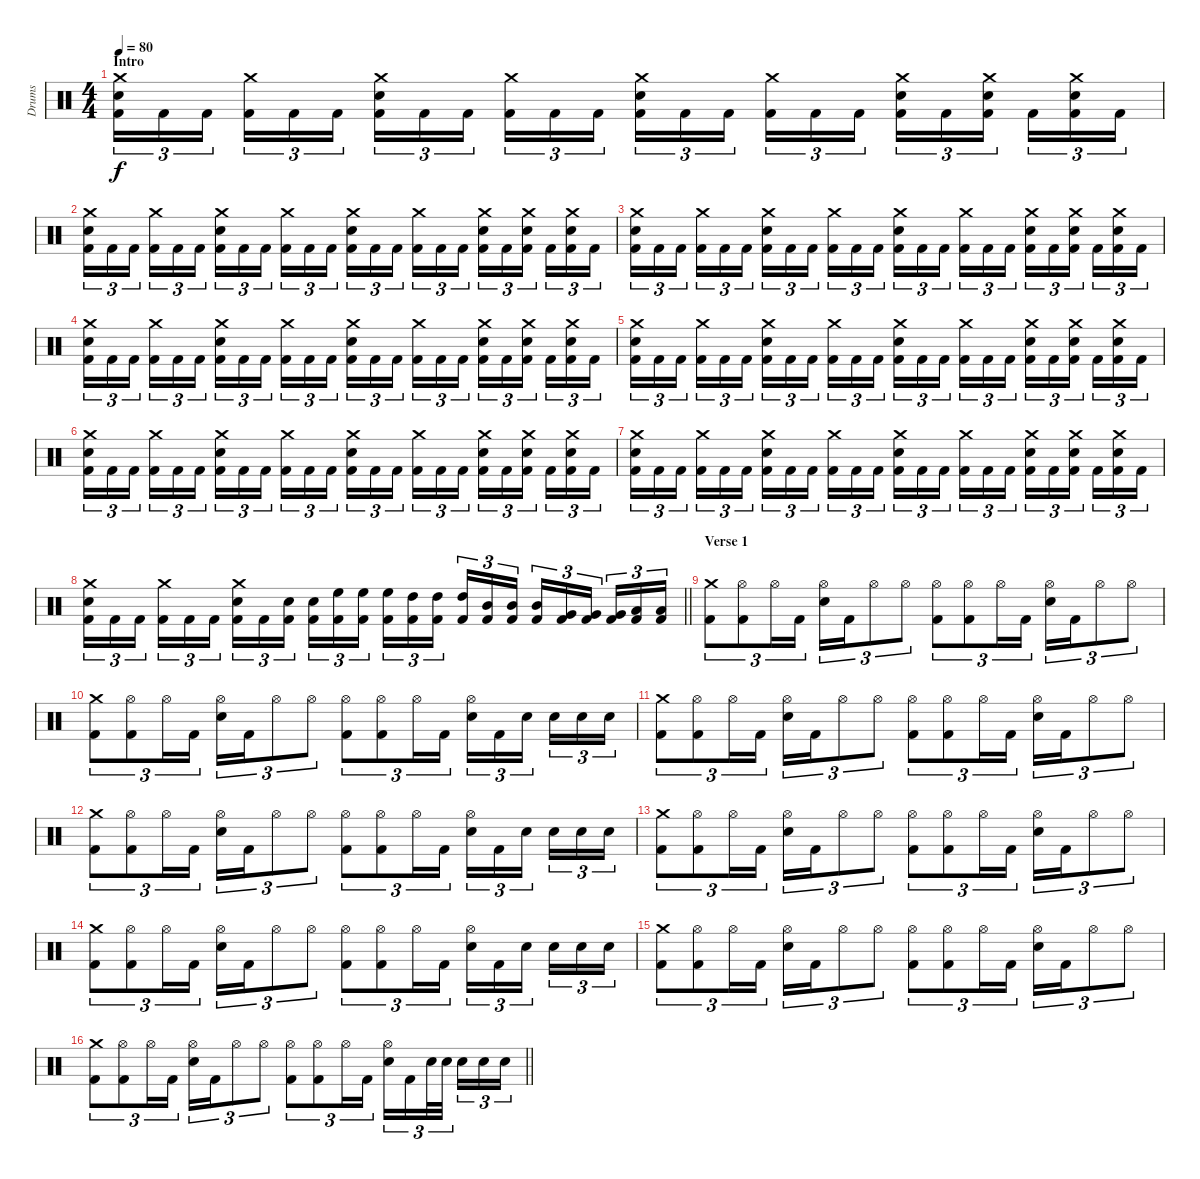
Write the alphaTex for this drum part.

\track ("Drums" "Drums") {instrument percussion}
\staff {score}
\articulation defaults
\ts (4 4)
\section ("" "Intro")
\tempo 80
\clef neutral
\ks c
("Crash medium (hit)" "Electric Snare (hit)" "Kick (hit) 2").16{tu (3 2) dy f} "Kick (hit) 2".16{tu (3 2)} "Kick (hit) 2".16{tu (3 2) beam splitsecondary} ("Crash medium (hit)" "Kick (hit) 2").16{tu (3 2)} "Kick (hit) 2".16{tu (3 2)} "Kick (hit) 2".16{tu (3 2)} ("Crash medium (hit)" "Electric Snare (hit)" "Kick (hit) 2").16{tu (3 2)} "Kick (hit) 2".16{tu (3 2)} "Kick (hit) 2".16{tu (3 2) beam splitsecondary} ("Crash medium (hit)" "Kick (hit) 2").16{tu (3 2)} "Kick (hit) 2".16{tu (3 2)} "Kick (hit) 2".16{tu (3 2)} ("Crash medium (hit)" "Electric Snare (hit)" "Kick (hit) 2").16{tu (3 2)} "Kick (hit) 2".16{tu (3 2)} "Kick (hit) 2".16{tu (3 2) beam splitsecondary} ("Crash medium (hit)" "Kick (hit) 2").16{tu (3 2)} "Kick (hit) 2".16{tu (3 2)} "Kick (hit) 2".16{tu (3 2)} ("Crash medium (hit)" "Electric Snare (hit)" "Kick (hit) 2").16{tu (3 2)} "Kick (hit) 2".16{tu (3 2)} ("Crash medium (hit)" "Electric Snare (hit)" "Kick (hit) 2").16{tu (3 2) beam splitsecondary} "Kick (hit) 2".16{tu (3 2)} ("Crash medium (hit)" "Electric Snare (hit)" "Kick (hit) 2").16{tu (3 2)} "Kick (hit) 2".16{tu (3 2)} |
("Crash medium (hit)" "Electric Snare (hit)" "Kick (hit) 2").16{tu (3 2)} "Kick (hit) 2".16{tu (3 2)} "Kick (hit) 2".16{tu (3 2) beam splitsecondary} ("Crash medium (hit)" "Kick (hit) 2").16{tu (3 2)} "Kick (hit) 2".16{tu (3 2)} "Kick (hit) 2".16{tu (3 2)} ("Crash medium (hit)" "Electric Snare (hit)" "Kick (hit) 2").16{tu (3 2)} "Kick (hit) 2".16{tu (3 2)} "Kick (hit) 2".16{tu (3 2) beam splitsecondary} ("Crash medium (hit)" "Kick (hit) 2").16{tu (3 2)} "Kick (hit) 2".16{tu (3 2)} "Kick (hit) 2".16{tu (3 2)} ("Crash medium (hit)" "Electric Snare (hit)" "Kick (hit) 2").16{tu (3 2)} "Kick (hit) 2".16{tu (3 2)} "Kick (hit) 2".16{tu (3 2) beam splitsecondary} ("Crash medium (hit)" "Kick (hit) 2").16{tu (3 2)} "Kick (hit) 2".16{tu (3 2)} "Kick (hit) 2".16{tu (3 2)} ("Crash medium (hit)" "Electric Snare (hit)" "Kick (hit) 2").16{tu (3 2)} "Kick (hit) 2".16{tu (3 2)} ("Crash medium (hit)" "Electric Snare (hit)" "Kick (hit) 2").16{tu (3 2) beam splitsecondary} "Kick (hit) 2".16{tu (3 2)} ("Crash medium (hit)" "Electric Snare (hit)" "Kick (hit) 2").16{tu (3 2)} "Kick (hit) 2".16{tu (3 2)} |
("Crash medium (hit)" "Electric Snare (hit)" "Kick (hit) 2").16{tu (3 2)} "Kick (hit) 2".16{tu (3 2)} "Kick (hit) 2".16{tu (3 2) beam splitsecondary} ("Crash medium (hit)" "Kick (hit) 2").16{tu (3 2)} "Kick (hit) 2".16{tu (3 2)} "Kick (hit) 2".16{tu (3 2)} ("Crash medium (hit)" "Electric Snare (hit)" "Kick (hit) 2").16{tu (3 2)} "Kick (hit) 2".16{tu (3 2)} "Kick (hit) 2".16{tu (3 2) beam splitsecondary} ("Crash medium (hit)" "Kick (hit) 2").16{tu (3 2)} "Kick (hit) 2".16{tu (3 2)} "Kick (hit) 2".16{tu (3 2)} ("Crash medium (hit)" "Electric Snare (hit)" "Kick (hit) 2").16{tu (3 2)} "Kick (hit) 2".16{tu (3 2)} "Kick (hit) 2".16{tu (3 2) beam splitsecondary} ("Crash medium (hit)" "Kick (hit) 2").16{tu (3 2)} "Kick (hit) 2".16{tu (3 2)} "Kick (hit) 2".16{tu (3 2)} ("Crash medium (hit)" "Electric Snare (hit)" "Kick (hit) 2").16{tu (3 2)} "Kick (hit) 2".16{tu (3 2)} ("Crash medium (hit)" "Electric Snare (hit)" "Kick (hit) 2").16{tu (3 2) beam splitsecondary} "Kick (hit) 2".16{tu (3 2)} ("Crash medium (hit)" "Electric Snare (hit)" "Kick (hit) 2").16{tu (3 2)} "Kick (hit) 2".16{tu (3 2)} |
("Crash medium (hit)" "Electric Snare (hit)" "Kick (hit) 2").16{tu (3 2)} "Kick (hit) 2".16{tu (3 2)} "Kick (hit) 2".16{tu (3 2) beam splitsecondary} ("Crash medium (hit)" "Kick (hit) 2").16{tu (3 2)} "Kick (hit) 2".16{tu (3 2)} "Kick (hit) 2".16{tu (3 2)} ("Crash medium (hit)" "Electric Snare (hit)" "Kick (hit) 2").16{tu (3 2)} "Kick (hit) 2".16{tu (3 2)} "Kick (hit) 2".16{tu (3 2) beam splitsecondary} ("Crash medium (hit)" "Kick (hit) 2").16{tu (3 2)} "Kick (hit) 2".16{tu (3 2)} "Kick (hit) 2".16{tu (3 2)} ("Crash medium (hit)" "Electric Snare (hit)" "Kick (hit) 2").16{tu (3 2)} "Kick (hit) 2".16{tu (3 2)} "Kick (hit) 2".16{tu (3 2) beam splitsecondary} ("Crash medium (hit)" "Kick (hit) 2").16{tu (3 2)} "Kick (hit) 2".16{tu (3 2)} "Kick (hit) 2".16{tu (3 2)} ("Crash medium (hit)" "Electric Snare (hit)" "Kick (hit) 2").16{tu (3 2)} "Kick (hit) 2".16{tu (3 2)} ("Crash medium (hit)" "Electric Snare (hit)" "Kick (hit) 2").16{tu (3 2) beam splitsecondary} "Kick (hit) 2".16{tu (3 2)} ("Crash medium (hit)" "Electric Snare (hit)" "Kick (hit) 2").16{tu (3 2)} "Kick (hit) 2".16{tu (3 2)} |
("Crash medium (hit)" "Electric Snare (hit)" "Kick (hit) 2").16{tu (3 2)} "Kick (hit) 2".16{tu (3 2)} "Kick (hit) 2".16{tu (3 2) beam splitsecondary} ("Crash medium (hit)" "Kick (hit) 2").16{tu (3 2)} "Kick (hit) 2".16{tu (3 2)} "Kick (hit) 2".16{tu (3 2)} ("Crash medium (hit)" "Electric Snare (hit)" "Kick (hit) 2").16{tu (3 2)} "Kick (hit) 2".16{tu (3 2)} "Kick (hit) 2".16{tu (3 2) beam splitsecondary} ("Crash medium (hit)" "Kick (hit) 2").16{tu (3 2)} "Kick (hit) 2".16{tu (3 2)} "Kick (hit) 2".16{tu (3 2)} ("Crash medium (hit)" "Electric Snare (hit)" "Kick (hit) 2").16{tu (3 2)} "Kick (hit) 2".16{tu (3 2)} "Kick (hit) 2".16{tu (3 2) beam splitsecondary} ("Crash medium (hit)" "Kick (hit) 2").16{tu (3 2)} "Kick (hit) 2".16{tu (3 2)} "Kick (hit) 2".16{tu (3 2)} ("Crash medium (hit)" "Electric Snare (hit)" "Kick (hit) 2").16{tu (3 2)} "Kick (hit) 2".16{tu (3 2)} ("Crash medium (hit)" "Electric Snare (hit)" "Kick (hit) 2").16{tu (3 2) beam splitsecondary} "Kick (hit) 2".16{tu (3 2)} ("Crash medium (hit)" "Electric Snare (hit)" "Kick (hit) 2").16{tu (3 2)} "Kick (hit) 2".16{tu (3 2)} |
("Crash medium (hit)" "Electric Snare (hit)" "Kick (hit) 2").16{tu (3 2)} "Kick (hit) 2".16{tu (3 2)} "Kick (hit) 2".16{tu (3 2) beam splitsecondary} ("Crash medium (hit)" "Kick (hit) 2").16{tu (3 2)} "Kick (hit) 2".16{tu (3 2)} "Kick (hit) 2".16{tu (3 2)} ("Crash medium (hit)" "Electric Snare (hit)" "Kick (hit) 2").16{tu (3 2)} "Kick (hit) 2".16{tu (3 2)} "Kick (hit) 2".16{tu (3 2) beam splitsecondary} ("Crash medium (hit)" "Kick (hit) 2").16{tu (3 2)} "Kick (hit) 2".16{tu (3 2)} "Kick (hit) 2".16{tu (3 2)} ("Crash medium (hit)" "Electric Snare (hit)" "Kick (hit) 2").16{tu (3 2)} "Kick (hit) 2".16{tu (3 2)} "Kick (hit) 2".16{tu (3 2) beam splitsecondary} ("Crash medium (hit)" "Kick (hit) 2").16{tu (3 2)} "Kick (hit) 2".16{tu (3 2)} "Kick (hit) 2".16{tu (3 2)} ("Crash medium (hit)" "Electric Snare (hit)" "Kick (hit) 2").16{tu (3 2)} "Kick (hit) 2".16{tu (3 2)} ("Crash medium (hit)" "Electric Snare (hit)" "Kick (hit) 2").16{tu (3 2) beam splitsecondary} "Kick (hit) 2".16{tu (3 2)} ("Crash medium (hit)" "Electric Snare (hit)" "Kick (hit) 2").16{tu (3 2)} "Kick (hit) 2".16{tu (3 2)} |
("Crash medium (hit)" "Electric Snare (hit)" "Kick (hit) 2").16{tu (3 2)} "Kick (hit) 2".16{tu (3 2)} "Kick (hit) 2".16{tu (3 2) beam splitsecondary} ("Crash medium (hit)" "Kick (hit) 2").16{tu (3 2)} "Kick (hit) 2".16{tu (3 2)} "Kick (hit) 2".16{tu (3 2)} ("Crash medium (hit)" "Electric Snare (hit)" "Kick (hit) 2").16{tu (3 2)} "Kick (hit) 2".16{tu (3 2)} "Kick (hit) 2".16{tu (3 2) beam splitsecondary} ("Crash medium (hit)" "Kick (hit) 2").16{tu (3 2)} "Kick (hit) 2".16{tu (3 2)} "Kick (hit) 2".16{tu (3 2)} ("Crash medium (hit)" "Electric Snare (hit)" "Kick (hit) 2").16{tu (3 2)} "Kick (hit) 2".16{tu (3 2)} "Kick (hit) 2".16{tu (3 2) beam splitsecondary} ("Crash medium (hit)" "Kick (hit) 2").16{tu (3 2)} "Kick (hit) 2".16{tu (3 2)} "Kick (hit) 2".16{tu (3 2)} ("Crash medium (hit)" "Electric Snare (hit)" "Kick (hit) 2").16{tu (3 2)} "Kick (hit) 2".16{tu (3 2)} ("Crash medium (hit)" "Electric Snare (hit)" "Kick (hit) 2").16{tu (3 2) beam splitsecondary} "Kick (hit) 2".16{tu (3 2)} ("Crash medium (hit)" "Electric Snare (hit)" "Kick (hit) 2").16{tu (3 2)} "Kick (hit) 2".16{tu (3 2)} |
\barLineRight lightlight
("Crash medium (hit)" "Electric Snare (hit)" "Kick (hit) 2").16{tu (3 2)} "Kick (hit) 2".16{tu (3 2)} "Kick (hit) 2".16{tu (3 2) beam splitsecondary} ("Crash medium (hit)" "Kick (hit) 2").16{tu (3 2)} "Kick (hit) 2".16{tu (3 2)} "Kick (hit) 2".16{tu (3 2)} ("Crash medium (hit)" "Electric Snare (hit)" "Kick (hit) 2").16{tu (3 2)} "Kick (hit) 2".16{tu (3 2)} ("Electric Snare (hit)" "Kick (hit) 2").16{tu (3 2) beam splitsecondary} ("Electric Snare (hit)" "Kick (hit) 2").16{tu (3 2)} ("High Floor Tom (hit)" "Kick (hit) 2").16{tu (3 2)} ("High Floor Tom (hit)" "Kick (hit) 2").16{tu (3 2)} ("High Floor Tom (hit)" "Kick (hit) 2").16{tu (3 2)} ("High Tom (hit)" "Kick (hit) 2").16{tu (3 2)} ("High Tom (hit)" "Kick (hit) 2").16{tu (3 2) beam splitsecondary} ("High Tom (hit)" "Kick (hit) 2").16{tu (3 2)} ("Mid Tom (hit)" "Kick (hit) 2").16{tu (3 2)} ("Mid Tom (hit)" "Kick (hit) 2").16{tu (3 2)} ("Mid Tom (hit)" "Kick (hit) 2").16{tu (3 2)} ("Very Low Tom (hit)" "Kick (hit) 2").16{tu (3 2)} ("Very Low Tom (hit)" "Kick (hit) 2").16{tu (3 2) beam splitsecondary} ("Very Low Tom (hit)" "Kick (hit) 2").16{tu (3 2)} ("Low Floor Tom (hit)" "Kick (hit) 2").16{tu (3 2)} ("Low Floor Tom (hit)" "Kick (hit) 2").16{tu (3 2)} |
\section ("" "Verse 1")
("Crash medium (hit)" "Kick (hit) 2").8{tu (3 2)} ("Hi-Hat (open)" "Kick (hit) 2").8{tu (3 2)} "Hi-Hat (open)".16{tu (3 2)} "Kick (hit) 2".16{tu (3 2)} ("Hi-Hat (open)" "Electric Snare (hit)").16{tu (3 2)} "Kick (hit) 2".16{tu (3 2)} "Hi-Hat (open)".8{tu (3 2)} "Hi-Hat (open)".8{tu (3 2)} ("Hi-Hat (open)" "Kick (hit) 2").8{tu (3 2)} ("Hi-Hat (open)" "Kick (hit) 2").8{tu (3 2)} "Hi-Hat (open)".16{tu (3 2)} "Kick (hit) 2".16{tu (3 2)} ("Hi-Hat (open)" "Electric Snare (hit)").16{tu (3 2)} "Kick (hit) 2".16{tu (3 2)} "Hi-Hat (open)".8{tu (3 2)} "Hi-Hat (open)".8{tu (3 2)} |
("Crash medium (hit)" "Kick (hit) 2").8{tu (3 2)} ("Hi-Hat (open)" "Kick (hit) 2").8{tu (3 2)} "Hi-Hat (open)".16{tu (3 2)} "Kick (hit) 2".16{tu (3 2)} ("Hi-Hat (open)" "Electric Snare (hit)").16{tu (3 2)} "Kick (hit) 2".16{tu (3 2)} "Hi-Hat (open)".8{tu (3 2)} "Hi-Hat (open)".8{tu (3 2)} ("Hi-Hat (open)" "Kick (hit) 2").8{tu (3 2)} ("Hi-Hat (open)" "Kick (hit) 2").8{tu (3 2)} "Hi-Hat (open)".16{tu (3 2)} "Kick (hit) 2".16{tu (3 2)} ("Hi-Hat (open)" "Electric Snare (hit)").16{tu (3 2)} "Kick (hit) 2".16{tu (3 2)} "Electric Snare (hit)".16{tu (3 2) beam splitsecondary} "Electric Snare (hit)".16{tu (3 2)} "Electric Snare (hit)".16{tu (3 2)} "Electric Snare (hit)".16{tu (3 2)} |
("Crash medium (hit)" "Kick (hit) 2").8{tu (3 2)} ("Hi-Hat (open)" "Kick (hit) 2").8{tu (3 2)} "Hi-Hat (open)".16{tu (3 2)} "Kick (hit) 2".16{tu (3 2)} ("Hi-Hat (open)" "Electric Snare (hit)").16{tu (3 2)} "Kick (hit) 2".16{tu (3 2)} "Hi-Hat (open)".8{tu (3 2)} "Hi-Hat (open)".8{tu (3 2)} ("Hi-Hat (open)" "Kick (hit) 2").8{tu (3 2)} ("Hi-Hat (open)" "Kick (hit) 2").8{tu (3 2)} "Hi-Hat (open)".16{tu (3 2)} "Kick (hit) 2".16{tu (3 2)} ("Hi-Hat (open)" "Electric Snare (hit)").16{tu (3 2)} "Kick (hit) 2".16{tu (3 2)} "Hi-Hat (open)".8{tu (3 2)} "Hi-Hat (open)".8{tu (3 2)} |
("Crash medium (hit)" "Kick (hit) 2").8{tu (3 2)} ("Hi-Hat (open)" "Kick (hit) 2").8{tu (3 2)} "Hi-Hat (open)".16{tu (3 2)} "Kick (hit) 2".16{tu (3 2)} ("Hi-Hat (open)" "Electric Snare (hit)").16{tu (3 2)} "Kick (hit) 2".16{tu (3 2)} "Hi-Hat (open)".8{tu (3 2)} "Hi-Hat (open)".8{tu (3 2)} ("Hi-Hat (open)" "Kick (hit) 2").8{tu (3 2)} ("Hi-Hat (open)" "Kick (hit) 2").8{tu (3 2)} "Hi-Hat (open)".16{tu (3 2)} "Kick (hit) 2".16{tu (3 2)} ("Hi-Hat (open)" "Electric Snare (hit)").16{tu (3 2)} "Kick (hit) 2".16{tu (3 2)} "Electric Snare (hit)".16{tu (3 2) beam splitsecondary} "Electric Snare (hit)".16{tu (3 2)} "Electric Snare (hit)".16{tu (3 2)} "Electric Snare (hit)".16{tu (3 2)} |
("Crash medium (hit)" "Kick (hit) 2").8{tu (3 2)} ("Hi-Hat (open)" "Kick (hit) 2").8{tu (3 2)} "Hi-Hat (open)".16{tu (3 2)} "Kick (hit) 2".16{tu (3 2)} ("Hi-Hat (open)" "Electric Snare (hit)").16{tu (3 2)} "Kick (hit) 2".16{tu (3 2)} "Hi-Hat (open)".8{tu (3 2)} "Hi-Hat (open)".8{tu (3 2)} ("Hi-Hat (open)" "Kick (hit) 2").8{tu (3 2)} ("Hi-Hat (open)" "Kick (hit) 2").8{tu (3 2)} "Hi-Hat (open)".16{tu (3 2)} "Kick (hit) 2".16{tu (3 2)} ("Hi-Hat (open)" "Electric Snare (hit)").16{tu (3 2)} "Kick (hit) 2".16{tu (3 2)} "Hi-Hat (open)".8{tu (3 2)} "Hi-Hat (open)".8{tu (3 2)} |
("Crash medium (hit)" "Kick (hit) 2").8{tu (3 2)} ("Hi-Hat (open)" "Kick (hit) 2").8{tu (3 2)} "Hi-Hat (open)".16{tu (3 2)} "Kick (hit) 2".16{tu (3 2)} ("Hi-Hat (open)" "Electric Snare (hit)").16{tu (3 2)} "Kick (hit) 2".16{tu (3 2)} "Hi-Hat (open)".8{tu (3 2)} "Hi-Hat (open)".8{tu (3 2)} ("Hi-Hat (open)" "Kick (hit) 2").8{tu (3 2)} ("Hi-Hat (open)" "Kick (hit) 2").8{tu (3 2)} "Hi-Hat (open)".16{tu (3 2)} "Kick (hit) 2".16{tu (3 2)} ("Hi-Hat (open)" "Electric Snare (hit)").16{tu (3 2)} "Kick (hit) 2".16{tu (3 2)} "Electric Snare (hit)".16{tu (3 2) beam splitsecondary} "Electric Snare (hit)".16{tu (3 2)} "Electric Snare (hit)".16{tu (3 2)} "Electric Snare (hit)".16{tu (3 2)} |
("Crash medium (hit)" "Kick (hit) 2").8{tu (3 2)} ("Hi-Hat (open)" "Kick (hit) 2").8{tu (3 2)} "Hi-Hat (open)".16{tu (3 2)} "Kick (hit) 2".16{tu (3 2)} ("Hi-Hat (open)" "Electric Snare (hit)").16{tu (3 2)} "Kick (hit) 2".16{tu (3 2)} "Hi-Hat (open)".8{tu (3 2)} "Hi-Hat (open)".8{tu (3 2)} ("Hi-Hat (open)" "Kick (hit) 2").8{tu (3 2)} ("Hi-Hat (open)" "Kick (hit) 2").8{tu (3 2)} "Hi-Hat (open)".16{tu (3 2)} "Kick (hit) 2".16{tu (3 2)} ("Hi-Hat (open)" "Electric Snare (hit)").16{tu (3 2)} "Kick (hit) 2".16{tu (3 2)} "Hi-Hat (open)".8{tu (3 2)} "Hi-Hat (open)".8{tu (3 2)} |
\barLineRight lightlight
("Crash medium (hit)" "Kick (hit) 2").8{tu (3 2)} ("Hi-Hat (open)" "Kick (hit) 2").8{tu (3 2)} "Hi-Hat (open)".16{tu (3 2)} "Kick (hit) 2".16{tu (3 2)} ("Hi-Hat (open)" "Electric Snare (hit)").16{tu (3 2)} "Kick (hit) 2".16{tu (3 2)} "Hi-Hat (open)".8{tu (3 2)} "Hi-Hat (open)".8{tu (3 2)} ("Hi-Hat (open)" "Kick (hit) 2").8{tu (3 2)} ("Hi-Hat (open)" "Kick (hit) 2").8{tu (3 2)} "Hi-Hat (open)".16{tu (3 2)} "Kick (hit) 2".16{tu (3 2)} ("Hi-Hat (open)" "Electric Snare (hit)").16{tu (3 2)} "Kick (hit) 2".16{tu (3 2)} "Electric Snare (hit)".32{tu (3 2)} "Electric Snare (hit)".32{tu (3 2) beam splitsecondary} "Electric Snare (hit)".16{tu (3 2)} "Electric Snare (hit)".16{tu (3 2)} "Electric Snare (hit)".16{tu (3 2)}
